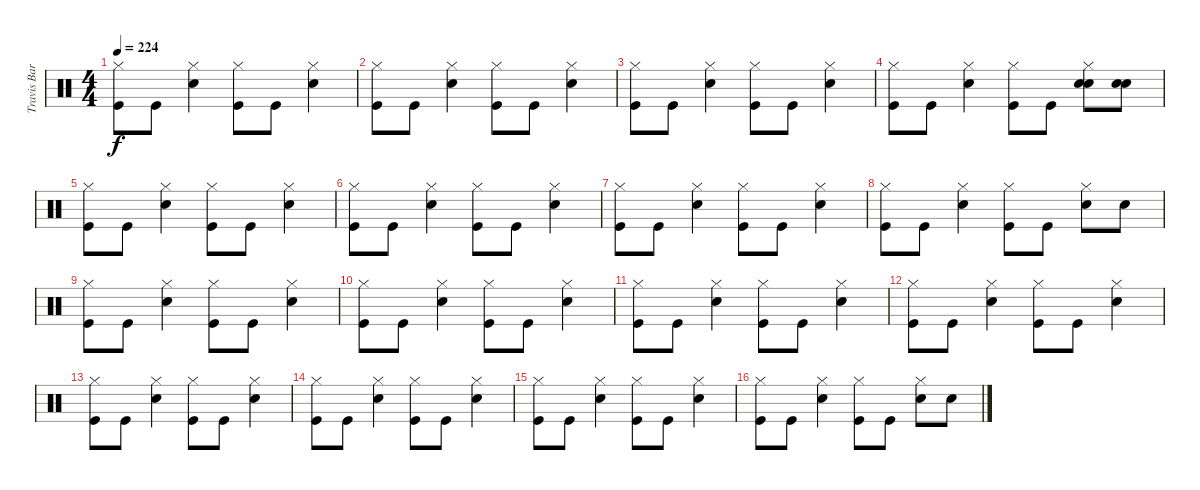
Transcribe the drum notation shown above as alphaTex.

\track ("Travis Barker (Drums)" "Travis Bar") {instrument percussion}
\staff {score}
\articulation defaults
\ts (4 4)
\tempo 224
\clef neutral
\ks c
("Kick (hit)" "Hi-Hat (closed)").8{dy f} "Kick (hit)".8 ("Electric Snare (hit)" "Hi-Hat (closed)").4 ("Kick (hit)" "Hi-Hat (closed)").8 "Kick (hit)".8 ("Electric Snare (hit)" "Hi-Hat (closed)").4 |
("Kick (hit)" "Hi-Hat (closed)").8 "Kick (hit)".8 ("Electric Snare (hit)" "Hi-Hat (closed)").4 ("Kick (hit)" "Hi-Hat (closed)").8 "Kick (hit)".8 ("Electric Snare (hit)" "Hi-Hat (closed)").4 |
("Kick (hit)" "Hi-Hat (closed)").8 "Kick (hit)".8 ("Electric Snare (hit)" "Hi-Hat (closed)").4 ("Kick (hit)" "Hi-Hat (closed)").8 "Kick (hit)".8 ("Electric Snare (hit)" "Hi-Hat (closed)").4 |
("Kick (hit)" "Hi-Hat (closed)").8 "Kick (hit)".8 ("Electric Snare (hit)" "Hi-Hat (closed)").4 ("Kick (hit)" "Hi-Hat (closed)").8 "Kick (hit)".8 ("Electric Snare (hit)" "Electric Snare (hit)" "Hi-Hat (closed)").8 ("Electric Snare (hit)" "Electric Snare (hit)").8 |
("Kick (hit)" "Hi-Hat (closed)").8 "Kick (hit)".8 ("Electric Snare (hit)" "Hi-Hat (closed)").4 ("Kick (hit)" "Hi-Hat (closed)").8 "Kick (hit)".8 ("Electric Snare (hit)" "Hi-Hat (closed)").4 |
("Kick (hit)" "Hi-Hat (closed)").8 "Kick (hit)".8 ("Electric Snare (hit)" "Hi-Hat (closed)").4 ("Kick (hit)" "Hi-Hat (closed)").8 "Kick (hit)".8 ("Electric Snare (hit)" "Hi-Hat (closed)").4 |
("Kick (hit)" "Hi-Hat (closed)").8 "Kick (hit)".8 ("Electric Snare (hit)" "Hi-Hat (closed)").4 ("Kick (hit)" "Hi-Hat (closed)").8 "Kick (hit)".8 ("Electric Snare (hit)" "Hi-Hat (closed)").4 |
("Kick (hit)" "Hi-Hat (closed)").8 "Kick (hit)".8 ("Electric Snare (hit)" "Hi-Hat (closed)").4 ("Kick (hit)" "Hi-Hat (closed)").8 "Kick (hit)".8 ("Electric Snare (hit)" "Hi-Hat (closed)").8 "Electric Snare (hit)".8 |
("Kick (hit)" "Hi-Hat (closed)").8 "Kick (hit)".8 ("Electric Snare (hit)" "Hi-Hat (closed)").4 ("Kick (hit)" "Hi-Hat (closed)").8 "Kick (hit)".8 ("Electric Snare (hit)" "Hi-Hat (closed)").4 |
("Kick (hit)" "Hi-Hat (closed)").8 "Kick (hit)".8 ("Electric Snare (hit)" "Hi-Hat (closed)").4 ("Kick (hit)" "Hi-Hat (closed)").8 "Kick (hit)".8 ("Electric Snare (hit)" "Hi-Hat (closed)").4 |
("Kick (hit)" "Hi-Hat (closed)").8 "Kick (hit)".8 ("Electric Snare (hit)" "Hi-Hat (closed)").4 ("Kick (hit)" "Hi-Hat (closed)").8 "Kick (hit)".8 ("Electric Snare (hit)" "Hi-Hat (closed)").4 |
("Kick (hit)" "Hi-Hat (closed)").8 "Kick (hit)".8 ("Electric Snare (hit)" "Hi-Hat (closed)").4 ("Kick (hit)" "Hi-Hat (closed)").8 "Kick (hit)".8 ("Electric Snare (hit)" "Hi-Hat (closed)").4 |
("Kick (hit)" "Hi-Hat (closed)").8 "Kick (hit)".8 ("Electric Snare (hit)" "Hi-Hat (closed)").4 ("Kick (hit)" "Hi-Hat (closed)").8 "Kick (hit)".8 ("Electric Snare (hit)" "Hi-Hat (closed)").4 |
("Kick (hit)" "Hi-Hat (closed)").8 "Kick (hit)".8 ("Electric Snare (hit)" "Hi-Hat (closed)").4 ("Kick (hit)" "Hi-Hat (closed)").8 "Kick (hit)".8 ("Electric Snare (hit)" "Hi-Hat (closed)").4 |
("Kick (hit)" "Hi-Hat (closed)").8 "Kick (hit)".8 ("Electric Snare (hit)" "Hi-Hat (closed)").4 ("Kick (hit)" "Hi-Hat (closed)").8 "Kick (hit)".8 ("Electric Snare (hit)" "Hi-Hat (closed)").4 |
("Kick (hit)" "Hi-Hat (closed)").8 "Kick (hit)".8 ("Electric Snare (hit)" "Hi-Hat (closed)").4 ("Kick (hit)" "Hi-Hat (closed)").8 "Kick (hit)".8 ("Electric Snare (hit)" "Hi-Hat (closed)").8 "Electric Snare (hit)".8
